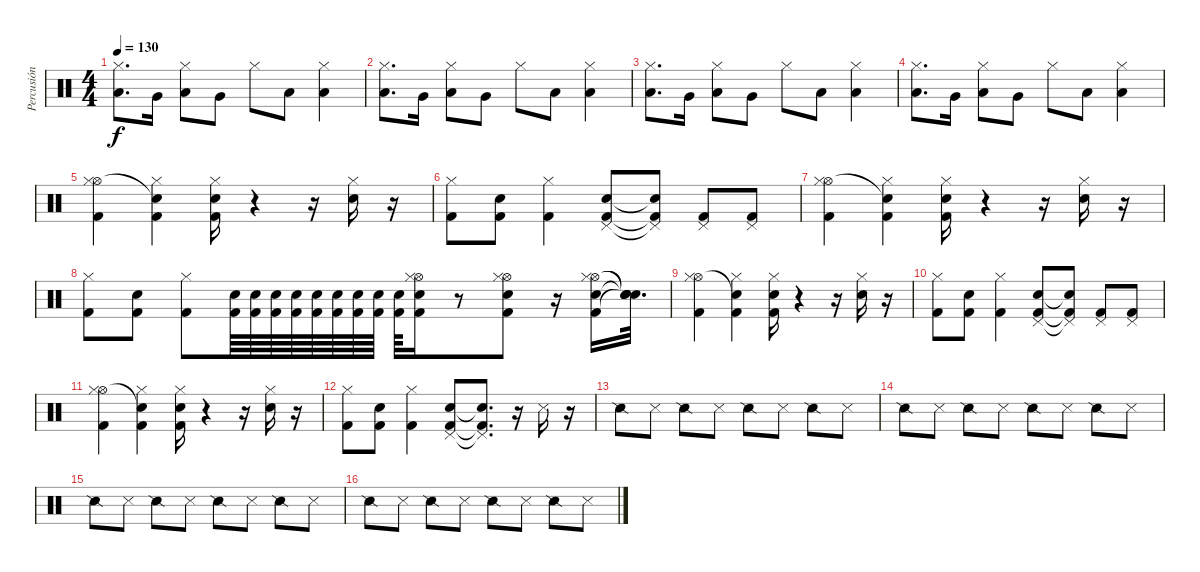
\track ("Percusión" "Percusión") {instrument percussion}
\staff {score}
\articulation defaults
\ts (4 4)
\tempo 130
\clef neutral
\ks c
("Low Floor Tom (hit)" "Hi-Hat (closed)").8{d dy f} "Very Low Tom (hit)".16 ("Low Floor Tom (hit)" "Hi-Hat (closed)").8 "Very Low Tom (hit)".8 "Hi-Hat (closed)".8 "Low Floor Tom (hit)".8 ("Low Floor Tom (hit)" "Hi-Hat (closed)").4 |
("Low Floor Tom (hit)" "Hi-Hat (closed)").8{d} "Very Low Tom (hit)".16 ("Low Floor Tom (hit)" "Hi-Hat (closed)").8 "Very Low Tom (hit)".8 "Hi-Hat (closed)".8 "Low Floor Tom (hit)".8 ("Low Floor Tom (hit)" "Hi-Hat (closed)").4 |
("Low Floor Tom (hit)" "Hi-Hat (closed)").8{d} "Very Low Tom (hit)".16 ("Low Floor Tom (hit)" "Hi-Hat (closed)").8 "Very Low Tom (hit)".8 "Hi-Hat (closed)".8 "Low Floor Tom (hit)".8 ("Low Floor Tom (hit)" "Hi-Hat (closed)").4 |
("Low Floor Tom (hit)" "Hi-Hat (closed)").8{d} "Very Low Tom (hit)".16 ("Low Floor Tom (hit)" "Hi-Hat (closed)").8 "Very Low Tom (hit)".8 "Hi-Hat (closed)".8 "Low Floor Tom (hit)".8 ("Low Floor Tom (hit)" "Hi-Hat (closed)").4 |
("Kick (hit) 2" "Hi-Hat (open)" "Hi-Hat (closed)").4 ("Kick (hit) 2" "Snare (hit)"{t} "Hi-Hat (closed)").4 ("Electric Snare (hit)" "Kick (hit) 2" "Hi-Hat (closed)").16 r.4 r.16 ("Electric Snare (hit)" "Hi-Hat (closed)").16 r.16 |
("Kick (hit) 2" "Hi-Hat (closed)").8 ("Kick (hit) 2" "Electric Snare (hit)").8 ("Kick (hit) 2" "Hi-Hat (closed)").4 ("Electric Snare (hit)" "Kick (hit) 2" "Pedal Hi-Hat (hit)").8 ("Snare (hit)"{t} "Kick (hit) 2"{t} "Pedal Hi-Hat (hit)"{t}).8 ("Kick (hit) 2" "Pedal Hi-Hat (hit)").8 ("Kick (hit) 2" "Pedal Hi-Hat (hit)").8 |
("Kick (hit) 2" "Hi-Hat (open)" "Hi-Hat (closed)").4 ("Kick (hit) 2" "Snare (hit)"{t} "Hi-Hat (closed)").4 ("Electric Snare (hit)" "Kick (hit) 2" "Hi-Hat (closed)").16 r.4 r.16 ("Electric Snare (hit)" "Hi-Hat (closed)").16 r.16 |
("Kick (hit) 2" "Hi-Hat (closed)").8 ("Kick (hit) 2" "Electric Snare (hit)").8 ("Kick (hit) 2" "Hi-Hat (closed)").8 ("Kick (hit) 2" "Electric Snare (hit)").64 ("Kick (hit) 2" "Electric Snare (hit)").64 ("Kick (hit) 2" "Electric Snare (hit)").64 ("Kick (hit) 2" "Electric Snare (hit)").64 ("Kick (hit) 2" "Electric Snare (hit)").64 ("Kick (hit) 2" "Electric Snare (hit)").64 ("Kick (hit) 2" "Electric Snare (hit)").64 ("Kick (hit) 2" "Electric Snare (hit)").64 ("Kick (hit) 2" "Electric Snare (hit)").64 ("Hi-Hat (open)" "Hi-Hat (closed)" "Kick (hit) 2" "Electric Snare (hit)").16 r.8 ("Hi-Hat (open)" "Hi-Hat (closed)" "Kick (hit) 2" "Electric Snare (hit)").8 r.16 ("Hi-Hat (open)" "Hi-Hat (closed)" "Kick (hit) 2" "Electric Snare (hit)").16 ("Snare (hit)"{t} "Snare (hit)"{t} "Snare (hit)"{t} "Snare (hit)"{t}).32{d} |
("Kick (hit) 2" "Hi-Hat (open)" "Hi-Hat (closed)").4 ("Kick (hit) 2" "Snare (hit)"{t} "Hi-Hat (closed)").4 ("Electric Snare (hit)" "Kick (hit) 2" "Hi-Hat (closed)").16 r.4 r.16 ("Electric Snare (hit)" "Hi-Hat (closed)").16 r.16 |
("Kick (hit) 2" "Hi-Hat (closed)").8 ("Kick (hit) 2" "Electric Snare (hit)").8 ("Kick (hit) 2" "Hi-Hat (closed)").4 ("Electric Snare (hit)" "Kick (hit) 2" "Pedal Hi-Hat (hit)").8 ("Snare (hit)"{t} "Kick (hit) 2"{t} "Pedal Hi-Hat (hit)"{t}).8 ("Kick (hit) 2" "Pedal Hi-Hat (hit)").8 ("Kick (hit) 2" "Pedal Hi-Hat (hit)").8 |
("Kick (hit) 2" "Hi-Hat (open)" "Hi-Hat (closed)").4 ("Kick (hit) 2" "Snare (hit)"{t} "Hi-Hat (closed)").4 ("Electric Snare (hit)" "Kick (hit) 2" "Hi-Hat (closed)").16 r.4 r.16 ("Electric Snare (hit)" "Hi-Hat (closed)").16 r.16 |
("Kick (hit) 2" "Hi-Hat (closed)").8 ("Kick (hit) 2" "Electric Snare (hit)").8 ("Kick (hit) 2" "Hi-Hat (closed)").4 ("Electric Snare (hit)" "Kick (hit) 2" "Pedal Hi-Hat (hit)").8 ("Snare (hit)"{t} "Kick (hit) 2"{t} "Pedal Hi-Hat (hit)"{t}).8{d} r.16 "Snare (side stick) 3".16 r.16 |
"Snare (side stick) 2".8 "Snare (side stick) 3".8 "Snare (side stick) 2".8 "Snare (side stick) 3".8 "Snare (side stick) 2".8 "Snare (side stick) 3".8 "Snare (side stick) 2".8 "Snare (side stick) 3".8 |
"Snare (side stick) 2".8 "Snare (side stick) 3".8 "Snare (side stick) 2".8 "Snare (side stick) 3".8 "Snare (side stick) 2".8 "Snare (side stick) 3".8 "Snare (side stick) 2".8 "Snare (side stick) 3".8 |
"Snare (side stick) 2".8 "Snare (side stick) 3".8 "Snare (side stick) 2".8 "Snare (side stick) 3".8 "Snare (side stick) 2".8 "Snare (side stick) 3".8 "Snare (side stick) 2".8 "Snare (side stick) 3".8 |
"Snare (side stick) 2".8 "Snare (side stick) 3".8 "Snare (side stick) 2".8 "Snare (side stick) 3".8 "Snare (side stick) 2".8 "Snare (side stick) 3".8 "Snare (side stick) 2".8 "Snare (side stick) 3".8
